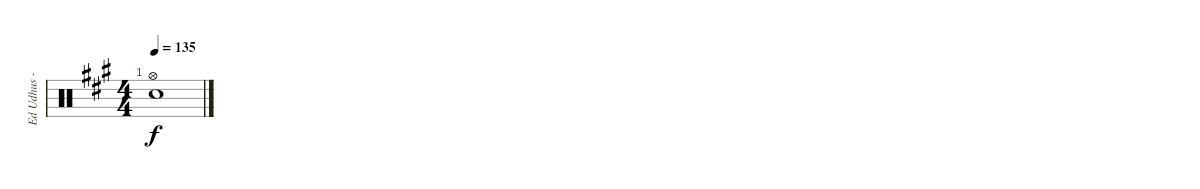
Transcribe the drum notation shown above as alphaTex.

\track ("Ed Udhus - Drums" "Ed Udhus -") {instrument percussion bank 127}
\staff {score}
\articulation defaults
\ts (4 4)
\tempo 135
\clef neutral
\ks a
("Hi-Hat (open)" "Snare (hit) 2").1{dy f}
